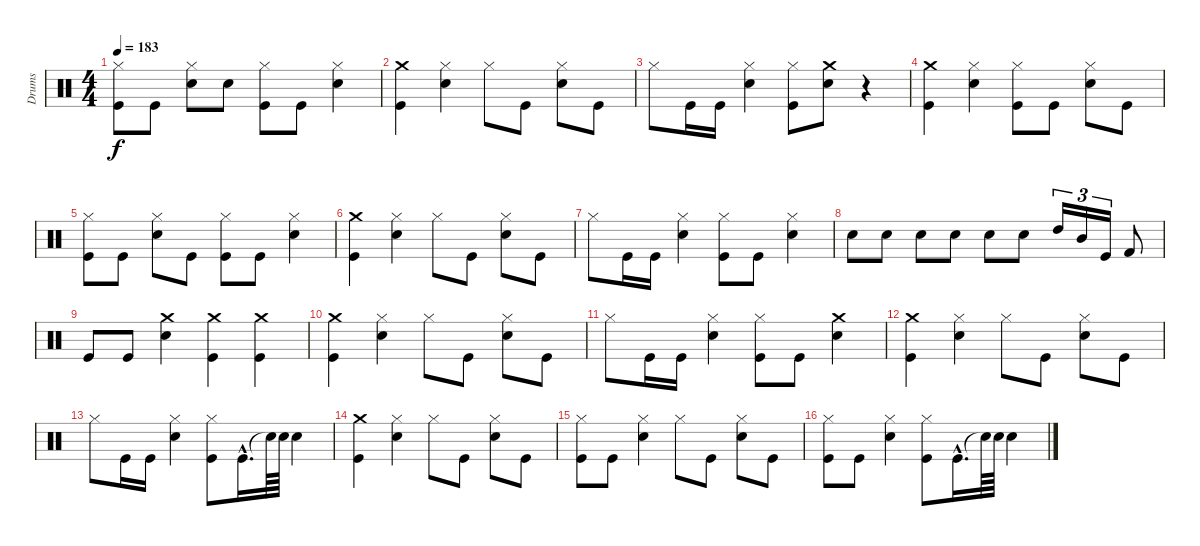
\track ("Drums" "Drums") {instrument percussion}
\staff {score}
\articulation defaults
\ts (4 4)
\tempo 183
\clef neutral
\ks c
("Kick (hit)" "Hi-Hat (closed)").8{dy f} "Kick (hit)".8 ("Snare (hit) 2" "Hi-Hat (closed)").8 "Snare (hit) 2".8 ("Kick (hit)" "Hi-Hat (closed)").8 "Kick (hit)".8 ("Snare (hit) 2" "Hi-Hat (closed)").4 |
("Kick (hit)" "Crash medium (hit)").4 ("Hi-Hat (closed)" "Snare (hit) 2").4 "Hi-Hat (closed)".8 "Kick (hit)".8 ("Snare (hit) 2" "Hi-Hat (closed)").8 "Kick (hit)".8 |
"Hi-Hat (closed)".8 "Kick (hit)".16 "Kick (hit)".16 ("Snare (hit) 2" "Hi-Hat (closed)").4 ("Kick (hit)" "Hi-Hat (closed)").8 ("Crash medium (hit)" "Snare (hit) 2").8 r.4 |
("Kick (hit)" "Crash medium (hit)").4 ("Hi-Hat (closed)" "Snare (hit) 2").4 ("Kick (hit)" "Hi-Hat (closed)").8 "Kick (hit)".8 ("Snare (hit) 2" "Hi-Hat (closed)").8 "Kick (hit)".8 |
("Hi-Hat (closed)" "Kick (hit)").8 "Kick (hit)".8 ("Snare (hit) 2" "Hi-Hat (closed)").8 "Kick (hit)".8 ("Hi-Hat (closed)" "Kick (hit)").8 "Kick (hit)".8 ("Snare (hit) 2" "Hi-Hat (closed)").4 |
("Kick (hit)" "Crash medium (hit)").4 ("Hi-Hat (closed)" "Snare (hit) 2").4 "Hi-Hat (closed)".8 "Kick (hit)".8 ("Snare (hit) 2" "Hi-Hat (closed)").8 "Kick (hit)".8 |
"Hi-Hat (closed)".8 "Kick (hit)".16 "Kick (hit)".16 ("Snare (hit) 2" "Hi-Hat (closed)").4 ("Kick (hit)" "Hi-Hat (closed)").8 "Kick (hit)".8 ("Snare (hit) 2" "Hi-Hat (closed)").4 |
"Snare (hit) 2".8 "Snare (hit) 2".8 "Snare (hit) 2".8 "Snare (hit) 2".8 "Snare (hit) 2".8 "Snare (hit) 2".8 "High Tom (hit)".16{tu (3 2)} "Mid Tom (hit)".16{tu (3 2)} "Kick (hit)".16{tu (3 2)} "Kick (hit) 2".8 |
"Kick (hit)".8 "Kick (hit)".8 ("Crash medium (hit)" "Snare (hit) 2").4 ("Crash medium (hit)" "Kick (hit)").4 ("Crash medium (hit)" "Kick (hit)").4 |
("Kick (hit)" "Crash medium (hit)").4 ("Hi-Hat (closed)" "Snare (hit) 2").4 "Hi-Hat (closed)".8 "Kick (hit)".8 ("Snare (hit) 2" "Hi-Hat (closed)").8 "Kick (hit)".8 |
"Hi-Hat (closed)".8 "Kick (hit)".16 "Kick (hit)".16 ("Snare (hit) 2" "Hi-Hat (closed)").4 ("Kick (hit)" "Hi-Hat (closed)").8 "Kick (hit)".8 ("Crash medium (hit)" "Snare (hit) 2").4 |
("Kick (hit)" "Crash medium (hit)").4 ("Hi-Hat (closed)" "Snare (hit) 2").4 "Hi-Hat (closed)".8 "Kick (hit)".8 ("Snare (hit) 2" "Hi-Hat (closed)").8 "Kick (hit)".8 |
"Hi-Hat (closed)".8 "Kick (hit)".16 "Kick (hit)".16 ("Snare (hit) 2" "Hi-Hat (closed)").4 ("Kick (hit)" "Hi-Hat (closed)").8 "Kick (hit)"{hac}.16{d} "Snare (hit)"{t}.64 "Snare (hit) 2".64 "Snare (hit) 2".4 |
("Kick (hit)" "Crash medium (hit)").4 ("Snare (hit) 2" "Hi-Hat (closed)").4 "Hi-Hat (closed)".8 "Kick (hit)".8 ("Snare (hit) 2" "Hi-Hat (closed)").8 "Kick (hit)".8 |
("Kick (hit)" "Hi-Hat (closed)").8 "Kick (hit)".8 ("Snare (hit) 2" "Hi-Hat (closed)").4 "Hi-Hat (closed)".8 "Kick (hit)".8 ("Snare (hit) 2" "Hi-Hat (closed)").8 "Kick (hit)".8 |
("Hi-Hat (closed)" "Kick (hit)").8 "Kick (hit)".8 ("Snare (hit) 2" "Hi-Hat (closed)").4 ("Hi-Hat (closed)" "Kick (hit)").8 "Kick (hit)"{hac}.16{d} "Snare (hit)"{t}.64 "Snare (hit) 2".64 "Snare (hit) 2".4
